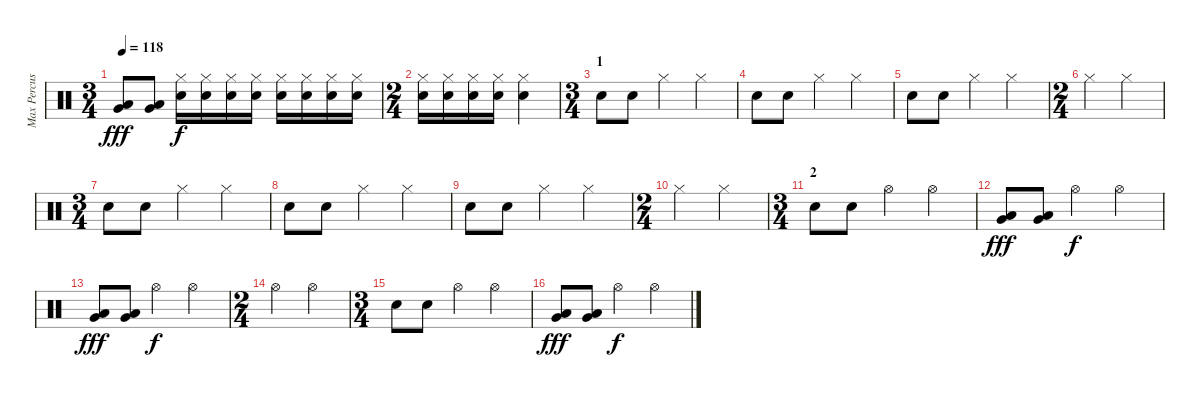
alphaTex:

\track ("Max Percussion" "Max Percus") {instrument percussion}
\staff {score}
\articulation defaults
\ts (3 4)
\tempo 118
\clef neutral
\ks c
("Very Low Tom (hit)" "Low Floor Tom (hit)").8{dy fff} ("Very Low Tom (hit)" "Low Floor Tom (hit)").8 ("Hi-Hat (closed)" "Snare (hit) 2").16{dy f} ("Hi-Hat (closed)" "Snare (hit) 2").16 ("Hi-Hat (closed)" "Snare (hit) 2").16 ("Hi-Hat (closed)" "Snare (hit) 2").16 ("Hi-Hat (closed)" "Snare (hit) 2").16 ("Hi-Hat (closed)" "Snare (hit) 2").16 ("Hi-Hat (closed)" "Snare (hit) 2").16 ("Hi-Hat (closed)" "Snare (hit) 2").16 |
\ts (2 4)
("Hi-Hat (closed)" "Snare (hit) 2").16 ("Hi-Hat (closed)" "Snare (hit) 2").16 ("Hi-Hat (closed)" "Snare (hit) 2").16 ("Hi-Hat (closed)" "Snare (hit) 2").16 ("Hi-Hat (closed)" "Snare (hit) 2").4 |
\ts (3 4)
\section ("" "1")
"Snare (hit) 2".8 "Snare (hit) 2".8 "Hi-Hat (closed)".4 "Hi-Hat (closed)".4 |
"Snare (hit) 2".8 "Snare (hit) 2".8 "Hi-Hat (closed)".4 "Hi-Hat (closed)".4 |
"Snare (hit) 2".8 "Snare (hit) 2".8 "Hi-Hat (closed)".4 "Hi-Hat (closed)".4 |
\ts (2 4)
"Hi-Hat (closed)".4 "Hi-Hat (closed)".4 |
\ts (3 4)
"Snare (hit) 2".8 "Snare (hit) 2".8 "Hi-Hat (closed)".4 "Hi-Hat (closed)".4 |
"Snare (hit) 2".8 "Snare (hit) 2".8 "Hi-Hat (closed)".4 "Hi-Hat (closed)".4 |
"Snare (hit) 2".8 "Snare (hit) 2".8 "Hi-Hat (closed)".4 "Hi-Hat (closed)".4 |
\ts (2 4)
"Hi-Hat (closed)".4 "Hi-Hat (closed)".4 |
\ts (3 4)
\section ("" "2")
"Snare (hit) 2".8 "Snare (hit) 2".8 "Hi-Hat (open)".4 "Hi-Hat (open)".4 |
("Low Tom (hit)" "Very Low Tom (hit)").8{dy fff} ("Low Tom (hit)" "Very Low Tom (hit)").8 "Hi-Hat (open)".4{dy f} "Hi-Hat (open)".4 |
("Very Low Tom (hit)" "Low Floor Tom (hit)").8{dy fff} ("Very Low Tom (hit)" "Low Floor Tom (hit)").8 "Hi-Hat (open)".4{dy f} "Hi-Hat (open)".4 |
\ts (2 4)
"Hi-Hat (open)".4 "Hi-Hat (open)".4 |
\ts (3 4)
"Snare (hit) 2".8 "Snare (hit) 2".8 "Hi-Hat (open)".4 "Hi-Hat (open)".4 |
("Low Tom (hit)" "Very Low Tom (hit)").8{dy fff} ("Low Tom (hit)" "Very Low Tom (hit)").8 "Hi-Hat (open)".4{dy f} "Hi-Hat (open)".4
